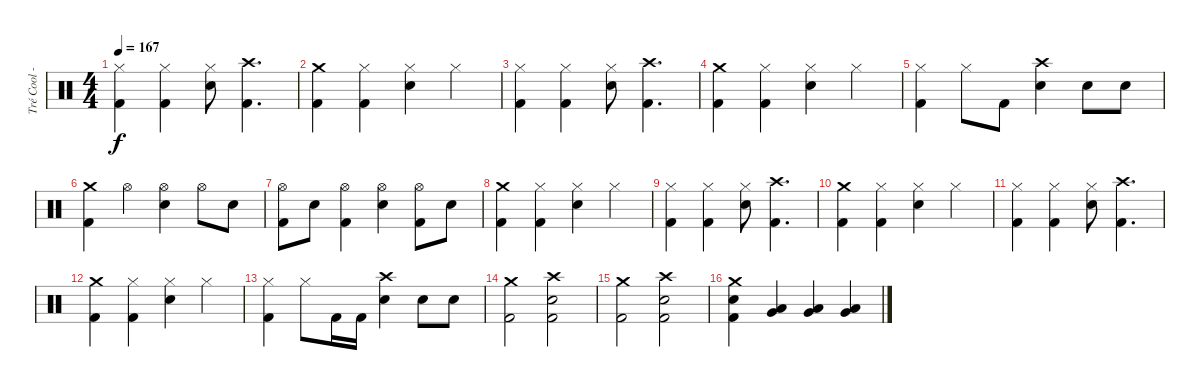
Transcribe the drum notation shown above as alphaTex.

\track ("Tré Cool - Drums" "Tré Cool -") {instrument percussion}
\staff {score}
\articulation defaults
\ts (4 4)
\tempo 167
\clef neutral
\ks c
("Hi-Hat (closed)" "Kick (hit) 2").4{dy f} ("Hi-Hat (closed)" "Kick (hit) 2").4 ("Hi-Hat (closed)" "Electric Snare (hit)").8 ("Crash high (hit)" "Kick (hit) 2").4{d} |
("Crash medium (hit)" "Kick (hit) 2").4 ("Hi-Hat (closed)" "Kick (hit) 2").4 ("Hi-Hat (closed)" "Electric Snare (hit)").4 "Hi-Hat (closed)".4 |
("Hi-Hat (closed)" "Kick (hit) 2").4 ("Hi-Hat (closed)" "Kick (hit) 2").4 ("Hi-Hat (closed)" "Electric Snare (hit)").8 ("Crash high (hit)" "Kick (hit) 2").4{d} |
("Crash medium (hit)" "Kick (hit) 2").4 ("Hi-Hat (closed)" "Kick (hit) 2").4 ("Hi-Hat (closed)" "Electric Snare (hit)").4 "Hi-Hat (closed)".4 |
("Hi-Hat (closed)" "Kick (hit) 2").4 "Hi-Hat (closed)".8 "Kick (hit) 2".8 ("Crash high (hit)" "Electric Snare (hit)").4 "Electric Snare (hit)".8 "Electric Snare (hit)".8 |
("Crash medium (hit)" "Kick (hit) 2").4 "Hi-Hat (open)".4 ("Hi-Hat (open)" "Electric Snare (hit)").4 "Hi-Hat (open)".8 "Electric Snare (hit)".8 |
("Hi-Hat (open)" "Kick (hit) 2").8 "Electric Snare (hit)".8 ("Hi-Hat (open)" "Kick (hit) 2").4 ("Hi-Hat (open)" "Electric Snare (hit)").4 ("Hi-Hat (open)" "Kick (hit) 2").8 "Electric Snare (hit)".8 |
("Crash medium (hit)" "Kick (hit) 2").4 ("Hi-Hat (closed)" "Kick (hit) 2").4 ("Hi-Hat (closed)" "Electric Snare (hit)").4 "Hi-Hat (closed)".4 |
("Hi-Hat (closed)" "Kick (hit) 2").4 ("Hi-Hat (closed)" "Kick (hit) 2").4 ("Hi-Hat (closed)" "Electric Snare (hit)").8 ("Crash high (hit)" "Kick (hit) 2").4{d} |
("Crash medium (hit)" "Kick (hit) 2").4 ("Hi-Hat (closed)" "Kick (hit) 2").4 ("Hi-Hat (closed)" "Electric Snare (hit)").4 "Hi-Hat (closed)".4 |
("Hi-Hat (closed)" "Kick (hit) 2").4 ("Hi-Hat (closed)" "Kick (hit) 2").4 ("Hi-Hat (closed)" "Electric Snare (hit)").8 ("Crash high (hit)" "Kick (hit) 2").4{d} |
("Crash medium (hit)" "Kick (hit) 2").4 ("Hi-Hat (closed)" "Kick (hit) 2").4 ("Hi-Hat (closed)" "Electric Snare (hit)").4 "Hi-Hat (closed)".4 |
("Hi-Hat (closed)" "Kick (hit) 2").4 "Hi-Hat (closed)".8 "Kick (hit) 2".16 "Kick (hit) 2".16 ("Crash high (hit)" "Electric Snare (hit)").4 "Electric Snare (hit)".8 "Electric Snare (hit)".8 |
("Crash medium (hit)" "Kick (hit) 2").2 ("Crash high (hit)" "Electric Snare (hit)" "Kick (hit) 2").2 |
("Crash medium (hit)" "Kick (hit) 2").2 ("Crash high (hit)" "Electric Snare (hit)" "Kick (hit) 2").2 |
("Crash medium (hit)" "Electric Snare (hit)" "Kick (hit) 2").4 ("Very Low Tom (hit)" "Low Floor Tom (hit)").4 ("Very Low Tom (hit)" "Low Floor Tom (hit)").4 ("Very Low Tom (hit)" "Low Floor Tom (hit)").4
